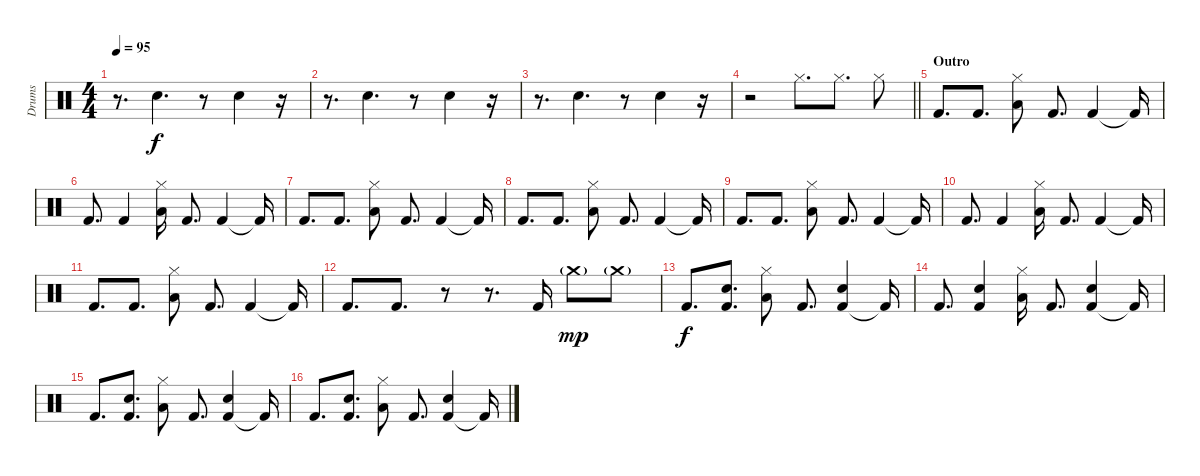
\track ("Drums" "Drums") {instrument percussion}
\staff {score}
\articulation defaults
\ts (4 4)
\tempo 95
\clef neutral
\ks c
r.8{d dy f} "Hand Clap (hit)".4{d} r.8 "Hand Clap (hit)".4 r.16 |
r.8{d} "Hand Clap (hit)".4{d} r.8 "Hand Clap (hit)".4 r.16 |
r.8{d} "Hand Clap (hit)".4{d} r.8 "Hand Clap (hit)".4 r.16 |
\barLineRight lightlight
r.2 "Hi-Hat (closed)".8{d} "Hi-Hat (closed)".8{d} "Hi-Hat (closed)".8 |
\section ("" "Outro")
"Kick (hit) 2".8{d} "Kick (hit) 2".8{d} ("Low Tom (hit)" "Hi-Hat (closed)").8 "Kick (hit) 2".8{d} "Kick (hit) 2".4 "Kick (hit) 2"{t}.16 |
"Kick (hit) 2".8{d} "Kick (hit) 2".4 ("Low Tom (hit)" "Hi-Hat (closed)").16 "Kick (hit) 2".8{d} "Kick (hit) 2".4 "Kick (hit) 2"{t}.16 |
"Kick (hit) 2".8{d} "Kick (hit) 2".8{d} ("Low Tom (hit)" "Hi-Hat (closed)").8 "Kick (hit) 2".8{d} "Kick (hit) 2".4 "Kick (hit) 2"{t}.16 |
"Kick (hit) 2".8{d} "Kick (hit) 2".8{d} ("Low Tom (hit)" "Hi-Hat (closed)").8 "Kick (hit) 2".8{d} "Kick (hit) 2".4 "Kick (hit) 2"{t}.16 |
"Kick (hit) 2".8{d} "Kick (hit) 2".8{d} ("Low Tom (hit)" "Hi-Hat (closed)").8 "Kick (hit) 2".8{d} "Kick (hit) 2".4 "Kick (hit) 2"{t}.16 |
"Kick (hit) 2".8{d} "Kick (hit) 2".4 ("Low Tom (hit)" "Hi-Hat (closed)").16 "Kick (hit) 2".8{d} "Kick (hit) 2".4 "Kick (hit) 2"{t}.16 |
"Kick (hit) 2".8{d} "Kick (hit) 2".8{d} ("Low Tom (hit)" "Hi-Hat (closed)").8 "Kick (hit) 2".8{d} "Kick (hit) 2".4 "Kick (hit) 2"{t}.16 |
"Kick (hit) 2".8{d} "Kick (hit) 2".8{d} r.8 r.8{d} "Kick (hit) 2".16 "Crash medium (hit)"{g}.8{dy mp} "Crash medium (hit)"{g}.8 |
"Kick (hit) 2".8{d dy f} ("Kick (hit) 2" "Hand Clap (hit)").8{d} ("Low Tom (hit)" "Hi-Hat (closed)").8 "Kick (hit) 2".8{d} ("Kick (hit) 2" "Hand Clap (hit)").4 "Kick (hit) 2"{t}.16 |
"Kick (hit) 2".8{d} ("Kick (hit) 2" "Hand Clap (hit)").4 ("Low Tom (hit)" "Hi-Hat (closed)").16 "Kick (hit) 2".8{d} ("Kick (hit) 2" "Hand Clap (hit)").4 "Kick (hit) 2"{t}.16 |
"Kick (hit) 2".8{d} ("Kick (hit) 2" "Hand Clap (hit)").8{d} ("Low Tom (hit)" "Hi-Hat (closed)").8 "Kick (hit) 2".8{d} ("Kick (hit) 2" "Hand Clap (hit)").4 "Kick (hit) 2"{t}.16 |
"Kick (hit) 2".8{d} ("Kick (hit) 2" "Hand Clap (hit)").8{d} ("Low Tom (hit)" "Hi-Hat (closed)").8 "Kick (hit) 2".8{d} ("Kick (hit) 2" "Hand Clap (hit)").4 "Kick (hit) 2"{t}.16
